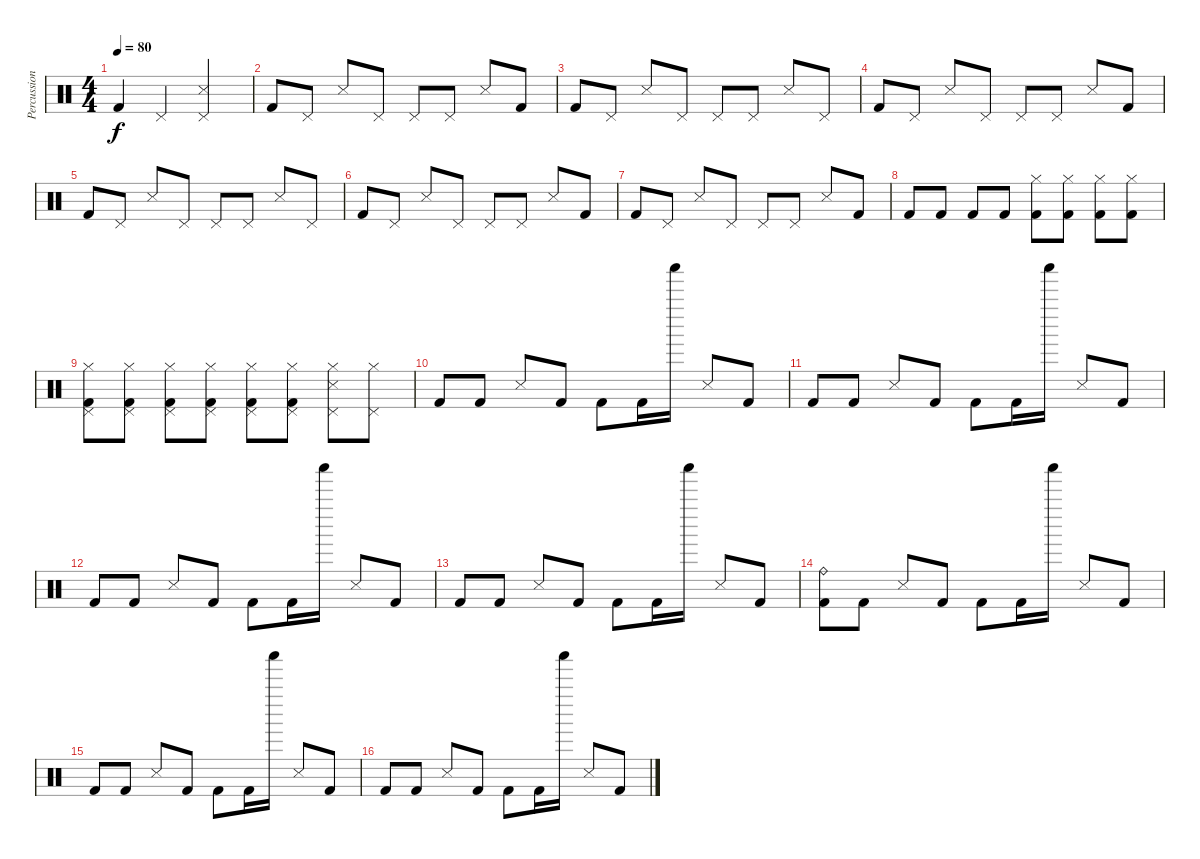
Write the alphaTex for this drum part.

\track ("Percussions" "Percussion") {instrument percussion}
\staff {score}
\articulation defaults
\ts (4 4)
\tempo 80
\clef neutral
\ks c "Kick (hit) 2".4{dy f} "Pedal Hi-Hat (hit)".4
("Snare (side stick) 3" "Pedal Hi-Hat (hit)").2 |
"Kick (hit) 2".8 "Pedal Hi-Hat (hit)".8 "Snare (side stick) 3".8 "Pedal Hi-Hat (hit)".8 "Pedal Hi-Hat (hit)".8 "Pedal Hi-Hat (hit)".8 "Snare (side stick) 3".8 "Kick (hit) 2".8 |
"Kick (hit) 2".8 "Pedal Hi-Hat (hit)".8 "Snare (side stick) 3".8 "Pedal Hi-Hat (hit)".8 "Pedal Hi-Hat (hit)".8 "Pedal Hi-Hat (hit)".8 "Snare (side stick) 3".8 "Pedal Hi-Hat (hit)".8 |
"Kick (hit) 2".8 "Pedal Hi-Hat (hit)".8 "Snare (side stick) 3".8 "Pedal Hi-Hat (hit)".8 "Pedal Hi-Hat (hit)".8 "Pedal Hi-Hat (hit)".8 "Snare (side stick) 3".8 "Kick (hit) 2".8 |
"Kick (hit) 2".8 "Pedal Hi-Hat (hit)".8 "Snare (side stick) 3".8 "Pedal Hi-Hat (hit)".8 "Pedal Hi-Hat (hit)".8 "Pedal Hi-Hat (hit)".8 "Snare (side stick) 3".8 "Pedal Hi-Hat (hit)".8 |
"Kick (hit) 2".8 "Pedal Hi-Hat (hit)".8 "Snare (side stick) 3".8 "Pedal Hi-Hat (hit)".8 "Pedal Hi-Hat (hit)".8 "Pedal Hi-Hat (hit)".8 "Snare (side stick) 3".8 "Kick (hit) 2".8 |
"Kick (hit) 2".8 "Pedal Hi-Hat (hit)".8 "Snare (side stick) 3".8 "Pedal Hi-Hat (hit)".8 "Pedal Hi-Hat (hit)".8 "Pedal Hi-Hat (hit)".8 "Snare (side stick) 3".8 "Kick (hit) 2".8 |
"Kick (hit) 2".8 "Kick (hit) 2".8 "Kick (hit) 2".8 "Kick (hit) 2".8 ("Hi-Hat (closed)" "Kick (hit) 2").8 ("Hi-Hat (closed)" "Kick (hit) 2").8 ("Hi-Hat (closed)" "Kick (hit) 2").8 ("Hi-Hat (closed)" "Kick (hit) 2").8 |
("Pedal Hi-Hat (hit)" "Hi-Hat (closed)" "Kick (hit) 2").8 ("Pedal Hi-Hat (hit)" "Hi-Hat (closed)" "Kick (hit) 2").8 ("Pedal Hi-Hat (hit)" "Hi-Hat (closed)" "Kick (hit) 2").8 ("Pedal Hi-Hat (hit)" "Hi-Hat (closed)" "Kick (hit) 2").8 ("Pedal Hi-Hat (hit)" "Hi-Hat (closed)" "Kick (hit) 2").8 ("Pedal Hi-Hat (hit)" "Hi-Hat (closed)" "Kick (hit) 2").8 ("Pedal Hi-Hat (hit)" "Snare (side stick) 3" "Hi-Hat (closed)").8 ("Pedal Hi-Hat (hit)" "Hi-Hat (closed)").8 |
"Kick (hit) 2".8 "Kick (hit) 2".8 "Snare (side stick) 3".8 "Kick (hit) 2".8 "Kick (hit) 2".8 "Kick (hit) 2".16 "Shaker (hit)".16 "Snare (side stick) 3".8 "Kick (hit) 2".8 |
"Kick (hit) 2".8 "Kick (hit) 2".8 "Snare (side stick) 3".8 "Kick (hit) 2".8 "Kick (hit) 2".8 "Kick (hit) 2".16 "Shaker (hit)".16 "Snare (side stick) 3".8 "Kick (hit) 2".8 |
"Kick (hit) 2".8 "Kick (hit) 2".8 "Snare (side stick) 3".8 "Kick (hit) 2".8 "Kick (hit) 2".8 "Kick (hit) 2".16 "Shaker (hit)".16 "Snare (side stick) 3".8 "Kick (hit) 2".8 |
"Kick (hit) 2".8 "Kick (hit) 2".8 "Snare (side stick) 3".8 "Kick (hit) 2".8 "Kick (hit) 2".8 "Kick (hit) 2".16 "Shaker (hit)".16 "Snare (side stick) 3".8 "Kick (hit) 2".8 |
("Ride (bell)" "Kick (hit) 2").8 "Kick (hit) 2".8 "Snare (side stick) 3".8 "Kick (hit) 2".8 "Kick (hit) 2".8 "Kick (hit) 2".16 "Shaker (hit)".16 "Snare (side stick) 3".8 "Kick (hit) 2".8 |
"Kick (hit) 2".8 "Kick (hit) 2".8 "Snare (side stick) 3".8 "Kick (hit) 2".8 "Kick (hit) 2".8 "Kick (hit) 2".16 "Shaker (hit)".16 "Snare (side stick) 3".8 "Kick (hit) 2".8 |
"Kick (hit) 2".8 "Kick (hit) 2".8 "Snare (side stick) 3".8 "Kick (hit) 2".8 "Kick (hit) 2".8 "Kick (hit) 2".16 "Shaker (hit)".16 "Snare (side stick) 3".8 "Kick (hit) 2".8
